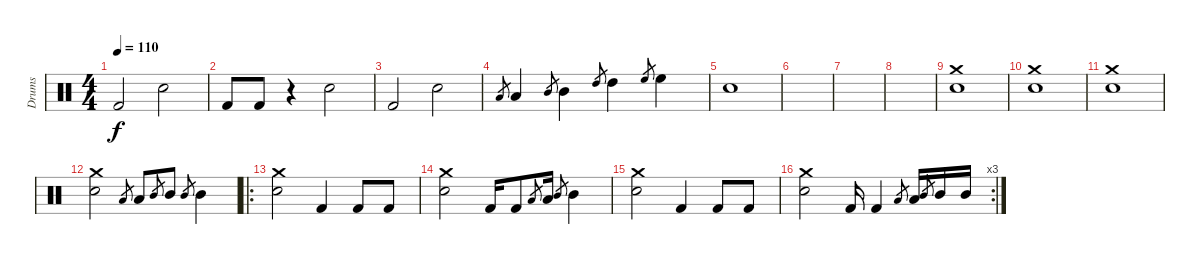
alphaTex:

\track ("Drums" "Drums") {instrument percussion}
\staff {score}
\articulation defaults
\ts (4 4)
\tempo 110
\clef neutral
\ks c "Kick (hit) 2".2{dy f} "Electric Snare (hit)".2
|
"Kick (hit) 2".8 "Kick (hit) 2".8 r.4 "Electric Snare (hit)".2 |
"Kick (hit) 2".2 "Electric Snare (hit)".2 |
"Low Tom (hit)".8{gr} "Low Tom (hit)".4 "Mid Tom (hit)".8{gr} "Mid Tom (hit)".4 "High Tom (hit)".8{gr} "High Tom (hit)".4 "High Floor Tom (hit)".8{gr} "High Floor Tom (hit)".4 |
"Electric Snare (hit)".1 |
|
|
|
("Crash medium (hit)" "Electric Snare (hit)").1 |
("Crash medium (hit)" "Electric Snare (hit)").1 |
("Crash medium (hit)" "Electric Snare (hit)").1 |
("Crash medium (hit)" "Electric Snare (hit)").2 "Low Tom (hit)".8{gr} "Low Tom (hit)".8 "Mid Tom (hit)".8{gr} "Mid Tom (hit)".8 "Mid Tom (hit)".8{gr} "Mid Tom (hit)".4 |
\ro
("Crash medium (hit)" "Electric Snare (hit)").2 "Kick (hit) 2".4 "Kick (hit) 2".8 "Kick (hit) 2".8 |
("Crash medium (hit)" "Electric Snare (hit)").2 "Kick (hit) 2".16 "Kick (hit) 2".8 "Low Tom (hit)".8{gr} "Low Tom (hit)".16 "Mid Tom (hit)".8{gr} "Mid Tom (hit)".4 |
("Crash medium (hit)" "Electric Snare (hit)").2 "Kick (hit) 2".4 "Kick (hit) 2".8 "Kick (hit) 2".8 |
\rc 3
("Crash medium (hit)" "Electric Snare (hit)").2 "Kick (hit) 2".16 "Kick (hit) 2".4 "Low Tom (hit)".8{gr} "Low Tom (hit)".16 "Mid Tom (hit)".8{gr} "Mid Tom (hit)".16 "Mid Tom (hit)".16
